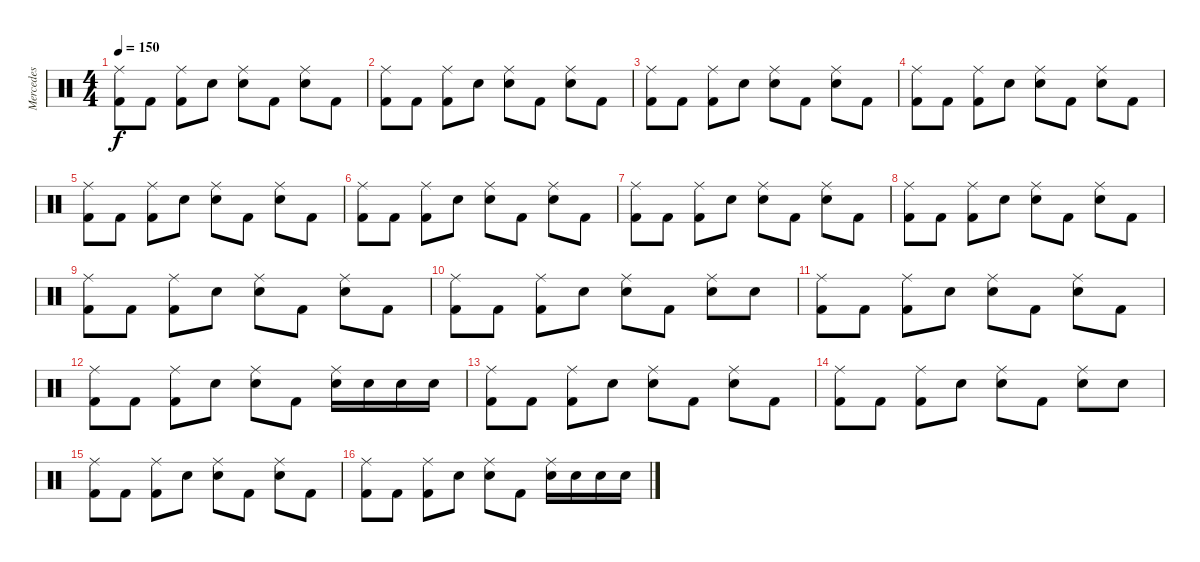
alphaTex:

\track ("Mercedes" "Mercedes") {instrument percussion}
\staff {score}
\articulation defaults
\ts (4 4)
\tempo 150
\clef neutral
\ks c
("Kick (hit) 2" "Ride (middle)").8{dy f} "Kick (hit) 2".8 ("Kick (hit) 2" "Ride (middle)").8 "Snare (hit) 2".8 ("Snare (hit) 2" "Ride (middle)").8 "Kick (hit) 2".8 ("Snare (hit) 2" "Ride (middle)").8 "Kick (hit) 2".8 |
("Kick (hit) 2" "Ride (middle)").8 "Kick (hit) 2".8 ("Kick (hit) 2" "Ride (middle)").8 "Snare (hit) 2".8 ("Snare (hit) 2" "Ride (middle)").8 "Kick (hit) 2".8 ("Snare (hit) 2" "Ride (middle)").8 "Kick (hit) 2".8 |
("Kick (hit) 2" "Ride (middle)").8 "Kick (hit) 2".8 ("Kick (hit) 2" "Ride (middle)").8 "Snare (hit) 2".8 ("Snare (hit) 2" "Ride (middle)").8 "Kick (hit) 2".8 ("Snare (hit) 2" "Ride (middle)").8 "Kick (hit) 2".8 |
("Kick (hit) 2" "Ride (middle)").8 "Kick (hit) 2".8 ("Kick (hit) 2" "Ride (middle)").8 "Snare (hit) 2".8 ("Snare (hit) 2" "Ride (middle)").8 "Kick (hit) 2".8 ("Snare (hit) 2" "Ride (middle)").8 "Kick (hit) 2".8 |
("Kick (hit) 2" "Ride (middle)").8 "Kick (hit) 2".8 ("Kick (hit) 2" "Ride (middle)").8 "Snare (hit) 2".8 ("Snare (hit) 2" "Ride (middle)").8 "Kick (hit) 2".8 ("Snare (hit) 2" "Ride (middle)").8 "Kick (hit) 2".8 |
("Kick (hit) 2" "Ride (middle)").8 "Kick (hit) 2".8 ("Kick (hit) 2" "Ride (middle)").8 "Snare (hit) 2".8 ("Snare (hit) 2" "Ride (middle)").8 "Kick (hit) 2".8 ("Snare (hit) 2" "Ride (middle)").8 "Kick (hit) 2".8 |
("Kick (hit) 2" "Ride (middle)").8 "Kick (hit) 2".8 ("Kick (hit) 2" "Ride (middle)").8 "Snare (hit) 2".8 ("Snare (hit) 2" "Ride (middle)").8 "Kick (hit) 2".8 ("Snare (hit) 2" "Ride (middle)").8 "Kick (hit) 2".8 |
("Kick (hit) 2" "Ride (middle)").8 "Kick (hit) 2".8 ("Kick (hit) 2" "Ride (middle)").8 "Snare (hit) 2".8 ("Snare (hit) 2" "Ride (middle)").8 "Kick (hit) 2".8 ("Snare (hit) 2" "Ride (middle)").8 "Kick (hit) 2".8 |
("Kick (hit) 2" "Ride (middle)").8 "Kick (hit) 2".8 ("Kick (hit) 2" "Ride (middle)").8 "Snare (hit) 2".8 ("Snare (hit) 2" "Ride (middle)").8 "Kick (hit) 2".8 ("Snare (hit) 2" "Ride (middle)").8 "Kick (hit) 2".8 |
("Kick (hit) 2" "Ride (middle)").8 "Kick (hit) 2".8 ("Kick (hit) 2" "Ride (middle)").8 "Snare (hit) 2".8 ("Snare (hit) 2" "Ride (middle)").8 "Kick (hit) 2".8 ("Snare (hit) 2" "Ride (middle)").8 "Snare (hit) 2".8 |
("Kick (hit) 2" "Ride (middle)").8 "Kick (hit) 2".8 ("Kick (hit) 2" "Ride (middle)").8 "Snare (hit) 2".8 ("Snare (hit) 2" "Ride (middle)").8 "Kick (hit) 2".8 ("Snare (hit) 2" "Ride (middle)").8 "Kick (hit) 2".8 |
("Kick (hit) 2" "Ride (middle)").8 "Kick (hit) 2".8 ("Kick (hit) 2" "Ride (middle)").8 "Snare (hit) 2".8 ("Snare (hit) 2" "Ride (middle)").8 "Kick (hit) 2".8 ("Snare (hit) 2" "Ride (middle)").16 "Snare (hit) 2".16 "Snare (hit) 2".16 "Snare (hit) 2".16 |
("Kick (hit) 2" "Ride (middle)").8 "Kick (hit) 2".8 ("Kick (hit) 2" "Ride (middle)").8 "Snare (hit) 2".8 ("Snare (hit) 2" "Ride (middle)").8 "Kick (hit) 2".8 ("Snare (hit) 2" "Ride (middle)").8 "Kick (hit) 2".8 |
("Kick (hit) 2" "Ride (middle)").8 "Kick (hit) 2".8 ("Kick (hit) 2" "Ride (middle)").8 "Snare (hit) 2".8 ("Snare (hit) 2" "Ride (middle)").8 "Kick (hit) 2".8 ("Snare (hit) 2" "Ride (middle)").8 "Snare (hit) 2".8 |
("Kick (hit) 2" "Ride (middle)").8 "Kick (hit) 2".8 ("Kick (hit) 2" "Ride (middle)").8 "Snare (hit) 2".8 ("Snare (hit) 2" "Ride (middle)").8 "Kick (hit) 2".8 ("Snare (hit) 2" "Ride (middle)").8 "Kick (hit) 2".8 |
("Kick (hit) 2" "Ride (middle)").8 "Kick (hit) 2".8 ("Kick (hit) 2" "Ride (middle)").8 "Snare (hit) 2".8 ("Snare (hit) 2" "Ride (middle)").8 "Kick (hit) 2".8 ("Snare (hit) 2" "Ride (middle)").16 "Snare (hit) 2".16 "Snare (hit) 2".16 "Snare (hit) 2".16
